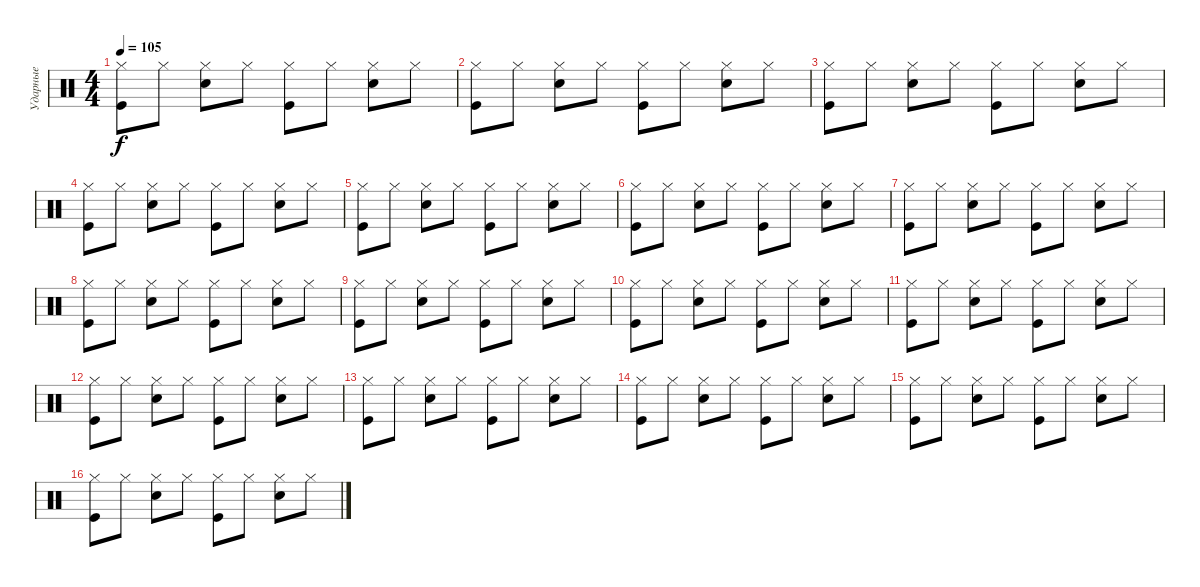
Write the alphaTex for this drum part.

\track ("Ударные" "Ударные") {instrument percussion}
\staff {score}
\articulation defaults
\ts (4 4)
\tempo 105
\clef neutral
\ks c
("Kick (hit)" "Hi-Hat (closed)").8{dy f} "Hi-Hat (closed)".8 ("Snare (hit) 2" "Hi-Hat (closed)").8 "Hi-Hat (closed)".8 ("Kick (hit)" "Hi-Hat (closed)").8 "Hi-Hat (closed)".8 ("Snare (hit) 2" "Hi-Hat (closed)").8 "Hi-Hat (closed)".8 |
("Kick (hit)" "Hi-Hat (closed)").8 "Hi-Hat (closed)".8 ("Snare (hit) 2" "Hi-Hat (closed)").8 "Hi-Hat (closed)".8 ("Kick (hit)" "Hi-Hat (closed)").8 "Hi-Hat (closed)".8 ("Snare (hit) 2" "Hi-Hat (closed)").8 "Hi-Hat (closed)".8 |
("Kick (hit)" "Hi-Hat (closed)").8 "Hi-Hat (closed)".8 ("Snare (hit) 2" "Hi-Hat (closed)").8 "Hi-Hat (closed)".8 ("Kick (hit)" "Hi-Hat (closed)").8 "Hi-Hat (closed)".8 ("Snare (hit) 2" "Hi-Hat (closed)").8 "Hi-Hat (closed)".8 |
("Kick (hit)" "Hi-Hat (closed)").8 "Hi-Hat (closed)".8 ("Snare (hit) 2" "Hi-Hat (closed)").8 "Hi-Hat (closed)".8 ("Kick (hit)" "Hi-Hat (closed)").8 "Hi-Hat (closed)".8 ("Snare (hit) 2" "Hi-Hat (closed)").8 "Hi-Hat (closed)".8 |
("Kick (hit)" "Hi-Hat (closed)").8 "Hi-Hat (closed)".8 ("Snare (hit) 2" "Hi-Hat (closed)").8 "Hi-Hat (closed)".8 ("Kick (hit)" "Hi-Hat (closed)").8 "Hi-Hat (closed)".8 ("Snare (hit) 2" "Hi-Hat (closed)").8 "Hi-Hat (closed)".8 |
("Kick (hit)" "Hi-Hat (closed)").8 "Hi-Hat (closed)".8 ("Snare (hit) 2" "Hi-Hat (closed)").8 "Hi-Hat (closed)".8 ("Kick (hit)" "Hi-Hat (closed)").8 "Hi-Hat (closed)".8 ("Snare (hit) 2" "Hi-Hat (closed)").8 "Hi-Hat (closed)".8 |
("Kick (hit)" "Hi-Hat (closed)").8 "Hi-Hat (closed)".8 ("Snare (hit) 2" "Hi-Hat (closed)").8 "Hi-Hat (closed)".8 ("Kick (hit)" "Hi-Hat (closed)").8 "Hi-Hat (closed)".8 ("Snare (hit) 2" "Hi-Hat (closed)").8 "Hi-Hat (closed)".8 |
("Kick (hit)" "Hi-Hat (closed)").8 "Hi-Hat (closed)".8 ("Snare (hit) 2" "Hi-Hat (closed)").8 "Hi-Hat (closed)".8 ("Kick (hit)" "Hi-Hat (closed)").8 "Hi-Hat (closed)".8 ("Snare (hit) 2" "Hi-Hat (closed)").8 "Hi-Hat (closed)".8 |
("Kick (hit)" "Hi-Hat (closed)").8 "Hi-Hat (closed)".8 ("Snare (hit) 2" "Hi-Hat (closed)").8 "Hi-Hat (closed)".8 ("Kick (hit)" "Hi-Hat (closed)").8 "Hi-Hat (closed)".8 ("Snare (hit) 2" "Hi-Hat (closed)").8 "Hi-Hat (closed)".8 |
("Kick (hit)" "Hi-Hat (closed)").8 "Hi-Hat (closed)".8 ("Snare (hit) 2" "Hi-Hat (closed)").8 "Hi-Hat (closed)".8 ("Kick (hit)" "Hi-Hat (closed)").8 "Hi-Hat (closed)".8 ("Snare (hit) 2" "Hi-Hat (closed)").8 "Hi-Hat (closed)".8 |
("Kick (hit)" "Hi-Hat (closed)").8 "Hi-Hat (closed)".8 ("Snare (hit) 2" "Hi-Hat (closed)").8 "Hi-Hat (closed)".8 ("Kick (hit)" "Hi-Hat (closed)").8 "Hi-Hat (closed)".8 ("Snare (hit) 2" "Hi-Hat (closed)").8 "Hi-Hat (closed)".8 |
("Kick (hit)" "Hi-Hat (closed)").8 "Hi-Hat (closed)".8 ("Snare (hit) 2" "Hi-Hat (closed)").8 "Hi-Hat (closed)".8 ("Kick (hit)" "Hi-Hat (closed)").8 "Hi-Hat (closed)".8 ("Snare (hit) 2" "Hi-Hat (closed)").8 "Hi-Hat (closed)".8 |
("Kick (hit)" "Hi-Hat (closed)").8 "Hi-Hat (closed)".8 ("Snare (hit) 2" "Hi-Hat (closed)").8 "Hi-Hat (closed)".8 ("Kick (hit)" "Hi-Hat (closed)").8 "Hi-Hat (closed)".8 ("Snare (hit) 2" "Hi-Hat (closed)").8 "Hi-Hat (closed)".8 |
("Kick (hit)" "Hi-Hat (closed)").8 "Hi-Hat (closed)".8 ("Snare (hit) 2" "Hi-Hat (closed)").8 "Hi-Hat (closed)".8 ("Kick (hit)" "Hi-Hat (closed)").8 "Hi-Hat (closed)".8 ("Snare (hit) 2" "Hi-Hat (closed)").8 "Hi-Hat (closed)".8 |
("Kick (hit)" "Hi-Hat (closed)").8 "Hi-Hat (closed)".8 ("Snare (hit) 2" "Hi-Hat (closed)").8 "Hi-Hat (closed)".8 ("Kick (hit)" "Hi-Hat (closed)").8 "Hi-Hat (closed)".8 ("Snare (hit) 2" "Hi-Hat (closed)").8 "Hi-Hat (closed)".8 |
("Kick (hit)" "Hi-Hat (closed)").8 "Hi-Hat (closed)".8 ("Snare (hit) 2" "Hi-Hat (closed)").8 "Hi-Hat (closed)".8 ("Kick (hit)" "Hi-Hat (closed)").8 "Hi-Hat (closed)".8 ("Snare (hit) 2" "Hi-Hat (closed)").8 "Hi-Hat (closed)".8
